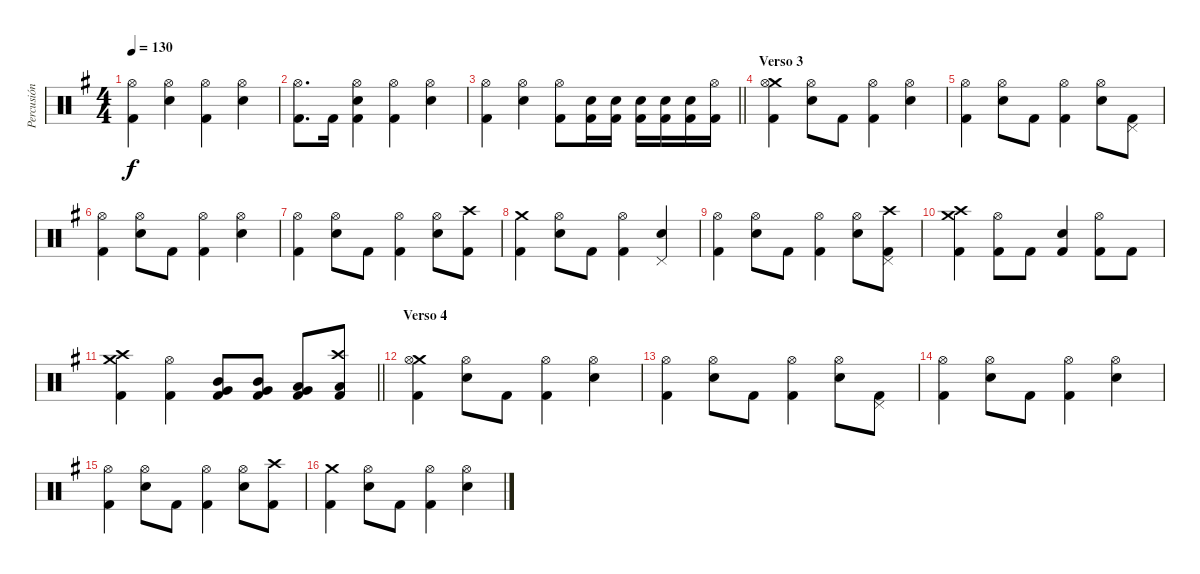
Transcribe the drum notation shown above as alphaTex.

\track ("Percusión" "Percusión") {instrument percussion}
\staff {score}
\articulation defaults
\ts (4 4)
\tempo 130
\clef neutral
\ks g
("Hi-Hat (open)" "Kick (hit) 2").4{dy f} ("Hi-Hat (open)" "Electric Snare (hit)").4 ("Hi-Hat (open)" "Kick (hit) 2").4 ("Hi-Hat (open)" "Electric Snare (hit)").4 |
("Hi-Hat (open)" "Kick (hit) 2").8{d} "Kick (hit) 2".16 ("Hi-Hat (open)" "Electric Snare (hit)" "Kick (hit) 2").4 ("Hi-Hat (open)" "Kick (hit) 2").4 ("Hi-Hat (open)" "Electric Snare (hit)").4 |
\barLineRight lightlight
("Hi-Hat (open)" "Kick (hit) 2").4 ("Hi-Hat (open)" "Electric Snare (hit)").4 ("Hi-Hat (open)" "Kick (hit) 2").8 ("Electric Snare (hit)" "Kick (hit) 2").16 ("Electric Snare (hit)" "Kick (hit) 2").16 ("Electric Snare (hit)" "Kick (hit) 2").16 ("Electric Snare (hit)" "Kick (hit) 2").16 ("Electric Snare (hit)" "Kick (hit) 2").16 ("Hi-Hat (open)" "Kick (hit) 2").16 |
\section ("" "Verso 3")
("Crash medium (hit)" "Hi-Hat (open)" "Kick (hit) 2").4 ("Hi-Hat (open)" "Electric Snare (hit)").8 "Kick (hit) 2".8 ("Hi-Hat (open)" "Kick (hit) 2").4 ("Hi-Hat (open)" "Electric Snare (hit)").4 |
("Hi-Hat (open)" "Kick (hit) 2").4 ("Hi-Hat (open)" "Electric Snare (hit)").8 "Kick (hit) 2".8 ("Hi-Hat (open)" "Kick (hit) 2").4 ("Hi-Hat (open)" "Electric Snare (hit)").8 ("Pedal Hi-Hat (hit)" "Kick (hit) 2").8 |
("Hi-Hat (open)" "Kick (hit) 2").4 ("Hi-Hat (open)" "Electric Snare (hit)").8 "Kick (hit) 2".8 ("Hi-Hat (open)" "Kick (hit) 2").4 ("Hi-Hat (open)" "Electric Snare (hit)").4 |
("Hi-Hat (open)" "Kick (hit) 2").4 ("Hi-Hat (open)" "Electric Snare (hit)").8 "Kick (hit) 2".8 ("Hi-Hat (open)" "Kick (hit) 2").4 ("Hi-Hat (open)" "Electric Snare (hit)").8 ("Crash high (hit)" "Kick (hit) 2").8 |
("Crash medium (hit)" "Kick (hit) 2").4 ("Hi-Hat (open)" "Electric Snare (hit)").8 "Kick (hit) 2".8 ("Hi-Hat (open)" "Kick (hit) 2").4 ("Pedal Hi-Hat (hit)" "Electric Snare (hit)").4 |
("Hi-Hat (open)" "Kick (hit) 2").4 ("Hi-Hat (open)" "Electric Snare (hit)").8 "Kick (hit) 2".8 ("Hi-Hat (open)" "Kick (hit) 2").4 ("Hi-Hat (open)" "Electric Snare (hit)").8 ("Crash high (hit)" "Pedal Hi-Hat (hit)" "Kick (hit) 2").8 |
("Crash medium (hit)" "Crash high (hit)" "Kick (hit) 2").4 ("Hi-Hat (open)" "Kick (hit) 2").8 "Kick (hit) 2".8 ("Electric Snare (hit)" "Kick (hit) 2").4 ("Hi-Hat (open)" "Kick (hit) 2").8 "Kick (hit) 2".8 |
\barLineRight lightlight
("Crash medium (hit)" "Crash high (hit)" "Kick (hit) 2").4 ("Hi-Hat (open)" "Kick (hit) 2").4 ("Mid Tom (hit)" "Very Low Tom (hit)" "Kick (hit) 2").8 ("Mid Tom (hit)" "Very Low Tom (hit)" "Kick (hit) 2").8 ("Low Tom (hit)" "Very Low Tom (hit)" "Kick (hit) 2").8 ("Crash high (hit)" "Low Tom (hit)" "Kick (hit) 2").8 |
\section ("" "Verso 4")
("Crash medium (hit)" "Hi-Hat (open)" "Kick (hit) 2").4 ("Hi-Hat (open)" "Electric Snare (hit)").8 "Kick (hit) 2".8 ("Hi-Hat (open)" "Kick (hit) 2").4 ("Hi-Hat (open)" "Electric Snare (hit)").4 |
("Hi-Hat (open)" "Kick (hit) 2").4 ("Hi-Hat (open)" "Electric Snare (hit)").8 "Kick (hit) 2".8 ("Hi-Hat (open)" "Kick (hit) 2").4 ("Hi-Hat (open)" "Electric Snare (hit)").8 ("Pedal Hi-Hat (hit)" "Kick (hit) 2").8 |
("Hi-Hat (open)" "Kick (hit) 2").4 ("Hi-Hat (open)" "Electric Snare (hit)").8 "Kick (hit) 2".8 ("Hi-Hat (open)" "Kick (hit) 2").4 ("Hi-Hat (open)" "Electric Snare (hit)").4 |
("Hi-Hat (open)" "Kick (hit) 2").4 ("Hi-Hat (open)" "Electric Snare (hit)").8 "Kick (hit) 2".8 ("Hi-Hat (open)" "Kick (hit) 2").4 ("Hi-Hat (open)" "Electric Snare (hit)").8 ("Crash high (hit)" "Kick (hit) 2").8 |
("Crash medium (hit)" "Kick (hit) 2").4 ("Hi-Hat (open)" "Electric Snare (hit)").8 "Kick (hit) 2".8 ("Hi-Hat (open)" "Kick (hit) 2").4 ("Hi-Hat (open)" "Electric Snare (hit)").4
